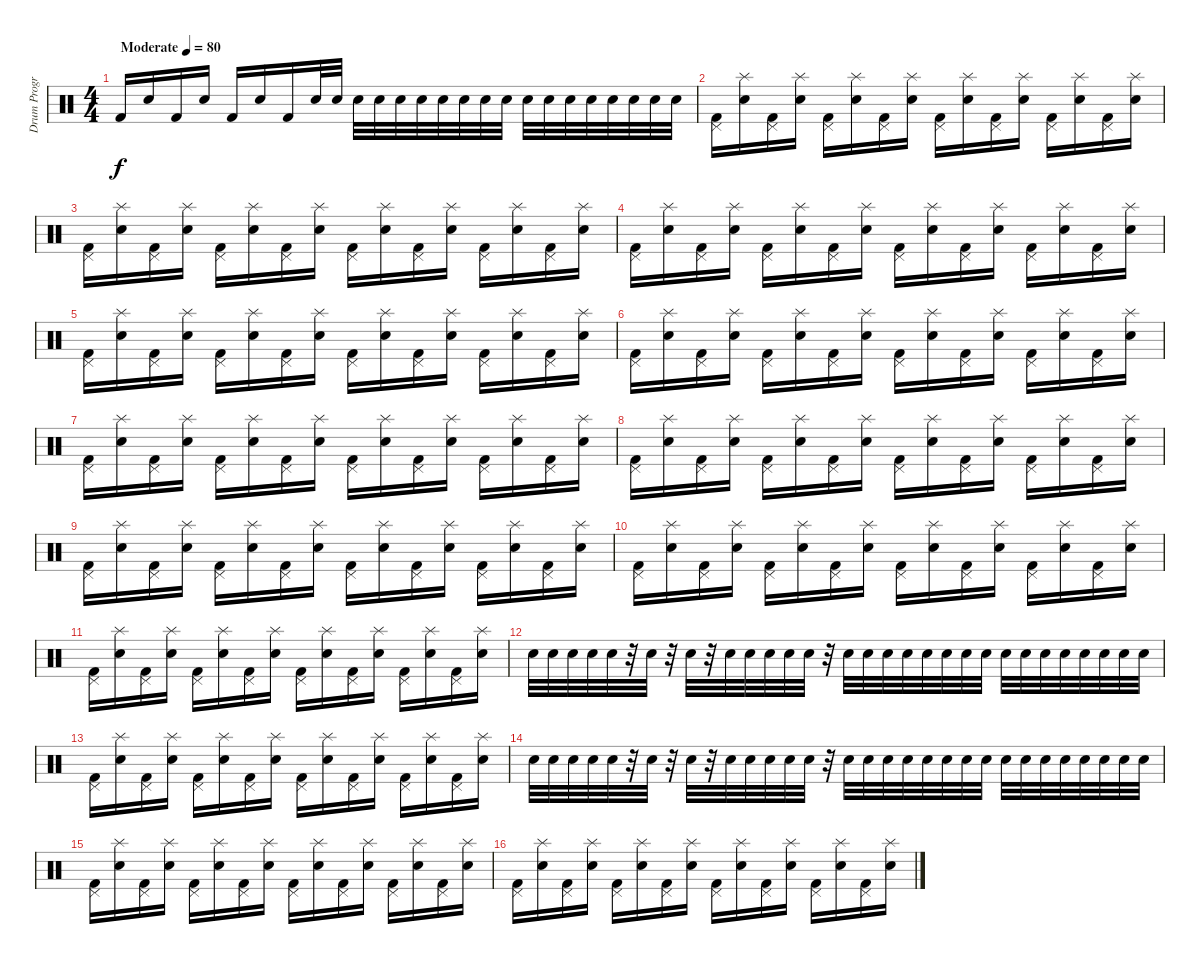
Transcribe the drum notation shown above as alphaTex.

\track ("Drum Programming" "Drum Progr") {instrument percussion}
\staff {score}
\articulation defaults
\ts (4 4)
\tempo (80 "Moderate")
\clef neutral
\ks c "Kick (hit) 2".16{dy f} "Electric Snare (hit)".16 "Kick (hit) 2".16 "Electric Snare (hit)".16 "Kick (hit) 2".16 "Electric Snare (hit)".16 "Kick (hit) 2".16 "Electric Snare (hit)".32 "Electric Snare (hit)".32 "Electric Snare (hit)".32 "Electric Snare (hit)".32 "Electric Snare (hit)".32 "Electric Snare (hit)".32 "Electric Snare (hit)".32 "Electric Snare (hit)".32 "Electric Snare (hit)".32 "Electric Snare (hit)".32 "Electric Snare (hit)".32 "Electric Snare (hit)".32 "Electric Snare (hit)".32 "Electric Snare (hit)".32 "Electric Snare (hit)".32 "Electric Snare (hit)".32 "Electric Snare (hit)".32 "Electric Snare (hit)".32
|
("Pedal Hi-Hat (hit)" "Kick (hit) 2").16 ("Electric Snare (hit)" "Splash (hit)").16 ("Pedal Hi-Hat (hit)" "Kick (hit) 2").16 ("Electric Snare (hit)" "Splash (hit)").16 ("Pedal Hi-Hat (hit)" "Kick (hit) 2").16 ("Electric Snare (hit)" "Splash (hit)").16 ("Pedal Hi-Hat (hit)" "Kick (hit) 2").16 ("Electric Snare (hit)" "Splash (hit)").16 ("Pedal Hi-Hat (hit)" "Kick (hit) 2").16 ("Electric Snare (hit)" "Splash (hit)").16 ("Pedal Hi-Hat (hit)" "Kick (hit) 2").16 ("Electric Snare (hit)" "Splash (hit)").16 ("Pedal Hi-Hat (hit)" "Kick (hit) 2").16 ("Electric Snare (hit)" "Splash (hit)").16 ("Pedal Hi-Hat (hit)" "Kick (hit) 2").16 ("Electric Snare (hit)" "Splash (hit)").16 |
("Pedal Hi-Hat (hit)" "Kick (hit) 2").16 ("Electric Snare (hit)" "Splash (hit)").16 ("Pedal Hi-Hat (hit)" "Kick (hit) 2").16 ("Electric Snare (hit)" "Splash (hit)").16 ("Pedal Hi-Hat (hit)" "Kick (hit) 2").16 ("Electric Snare (hit)" "Splash (hit)").16 ("Pedal Hi-Hat (hit)" "Kick (hit) 2").16 ("Electric Snare (hit)" "Splash (hit)").16 ("Pedal Hi-Hat (hit)" "Kick (hit) 2").16 ("Electric Snare (hit)" "Splash (hit)").16 ("Pedal Hi-Hat (hit)" "Kick (hit) 2").16 ("Electric Snare (hit)" "Splash (hit)").16 ("Pedal Hi-Hat (hit)" "Kick (hit) 2").16 ("Electric Snare (hit)" "Splash (hit)").16 ("Pedal Hi-Hat (hit)" "Kick (hit) 2").16 ("Electric Snare (hit)" "Splash (hit)").16 |
("Pedal Hi-Hat (hit)" "Kick (hit) 2").16 ("Electric Snare (hit)" "Splash (hit)").16 ("Pedal Hi-Hat (hit)" "Kick (hit) 2").16 ("Electric Snare (hit)" "Splash (hit)").16 ("Pedal Hi-Hat (hit)" "Kick (hit) 2").16 ("Electric Snare (hit)" "Splash (hit)").16 ("Pedal Hi-Hat (hit)" "Kick (hit) 2").16 ("Electric Snare (hit)" "Splash (hit)").16 ("Pedal Hi-Hat (hit)" "Kick (hit) 2").16 ("Electric Snare (hit)" "Splash (hit)").16 ("Pedal Hi-Hat (hit)" "Kick (hit) 2").16 ("Electric Snare (hit)" "Splash (hit)").16 ("Pedal Hi-Hat (hit)" "Kick (hit) 2").16 ("Electric Snare (hit)" "Splash (hit)").16 ("Pedal Hi-Hat (hit)" "Kick (hit) 2").16 ("Electric Snare (hit)" "Splash (hit)").16 |
("Pedal Hi-Hat (hit)" "Kick (hit) 2").16 ("Electric Snare (hit)" "Splash (hit)").16 ("Pedal Hi-Hat (hit)" "Kick (hit) 2").16 ("Electric Snare (hit)" "Splash (hit)").16 ("Pedal Hi-Hat (hit)" "Kick (hit) 2").16 ("Electric Snare (hit)" "Splash (hit)").16 ("Pedal Hi-Hat (hit)" "Kick (hit) 2").16 ("Electric Snare (hit)" "Splash (hit)").16 ("Pedal Hi-Hat (hit)" "Kick (hit) 2").16 ("Electric Snare (hit)" "Splash (hit)").16 ("Pedal Hi-Hat (hit)" "Kick (hit) 2").16 ("Electric Snare (hit)" "Splash (hit)").16 ("Pedal Hi-Hat (hit)" "Kick (hit) 2").16 ("Electric Snare (hit)" "Splash (hit)").16 ("Pedal Hi-Hat (hit)" "Kick (hit) 2").16 ("Electric Snare (hit)" "Splash (hit)").16 |
("Pedal Hi-Hat (hit)" "Kick (hit) 2").16 ("Electric Snare (hit)" "Splash (hit)").16 ("Pedal Hi-Hat (hit)" "Kick (hit) 2").16 ("Electric Snare (hit)" "Splash (hit)").16 ("Pedal Hi-Hat (hit)" "Kick (hit) 2").16 ("Electric Snare (hit)" "Splash (hit)").16 ("Pedal Hi-Hat (hit)" "Kick (hit) 2").16 ("Electric Snare (hit)" "Splash (hit)").16 ("Pedal Hi-Hat (hit)" "Kick (hit) 2").16 ("Electric Snare (hit)" "Splash (hit)").16 ("Pedal Hi-Hat (hit)" "Kick (hit) 2").16 ("Electric Snare (hit)" "Splash (hit)").16 ("Pedal Hi-Hat (hit)" "Kick (hit) 2").16 ("Electric Snare (hit)" "Splash (hit)").16 ("Pedal Hi-Hat (hit)" "Kick (hit) 2").16 ("Electric Snare (hit)" "Splash (hit)").16 |
("Pedal Hi-Hat (hit)" "Kick (hit) 2").16 ("Electric Snare (hit)" "Splash (hit)").16 ("Pedal Hi-Hat (hit)" "Kick (hit) 2").16 ("Electric Snare (hit)" "Splash (hit)").16 ("Pedal Hi-Hat (hit)" "Kick (hit) 2").16 ("Electric Snare (hit)" "Splash (hit)").16 ("Pedal Hi-Hat (hit)" "Kick (hit) 2").16 ("Electric Snare (hit)" "Splash (hit)").16 ("Pedal Hi-Hat (hit)" "Kick (hit) 2").16 ("Electric Snare (hit)" "Splash (hit)").16 ("Pedal Hi-Hat (hit)" "Kick (hit) 2").16 ("Electric Snare (hit)" "Splash (hit)").16 ("Pedal Hi-Hat (hit)" "Kick (hit) 2").16 ("Electric Snare (hit)" "Splash (hit)").16 ("Pedal Hi-Hat (hit)" "Kick (hit) 2").16 ("Electric Snare (hit)" "Splash (hit)").16 |
("Pedal Hi-Hat (hit)" "Kick (hit) 2").16 ("Electric Snare (hit)" "Splash (hit)").16 ("Pedal Hi-Hat (hit)" "Kick (hit) 2").16 ("Electric Snare (hit)" "Splash (hit)").16 ("Pedal Hi-Hat (hit)" "Kick (hit) 2").16 ("Electric Snare (hit)" "Splash (hit)").16 ("Pedal Hi-Hat (hit)" "Kick (hit) 2").16 ("Electric Snare (hit)" "Splash (hit)").16 ("Pedal Hi-Hat (hit)" "Kick (hit) 2").16 ("Electric Snare (hit)" "Splash (hit)").16 ("Pedal Hi-Hat (hit)" "Kick (hit) 2").16 ("Electric Snare (hit)" "Splash (hit)").16 ("Pedal Hi-Hat (hit)" "Kick (hit) 2").16 ("Electric Snare (hit)" "Splash (hit)").16 ("Pedal Hi-Hat (hit)" "Kick (hit) 2").16 ("Electric Snare (hit)" "Splash (hit)").16 |
("Pedal Hi-Hat (hit)" "Kick (hit) 2").16 ("Electric Snare (hit)" "Splash (hit)").16 ("Pedal Hi-Hat (hit)" "Kick (hit) 2").16 ("Electric Snare (hit)" "Splash (hit)").16 ("Pedal Hi-Hat (hit)" "Kick (hit) 2").16 ("Electric Snare (hit)" "Splash (hit)").16 ("Pedal Hi-Hat (hit)" "Kick (hit) 2").16 ("Electric Snare (hit)" "Splash (hit)").16 ("Pedal Hi-Hat (hit)" "Kick (hit) 2").16 ("Electric Snare (hit)" "Splash (hit)").16 ("Pedal Hi-Hat (hit)" "Kick (hit) 2").16 ("Electric Snare (hit)" "Splash (hit)").16 ("Pedal Hi-Hat (hit)" "Kick (hit) 2").16 ("Electric Snare (hit)" "Splash (hit)").16 ("Pedal Hi-Hat (hit)" "Kick (hit) 2").16 ("Electric Snare (hit)" "Splash (hit)").16 |
("Pedal Hi-Hat (hit)" "Kick (hit) 2").16 ("Electric Snare (hit)" "Splash (hit)").16 ("Pedal Hi-Hat (hit)" "Kick (hit) 2").16 ("Electric Snare (hit)" "Splash (hit)").16 ("Pedal Hi-Hat (hit)" "Kick (hit) 2").16 ("Electric Snare (hit)" "Splash (hit)").16 ("Pedal Hi-Hat (hit)" "Kick (hit) 2").16 ("Electric Snare (hit)" "Splash (hit)").16 ("Pedal Hi-Hat (hit)" "Kick (hit) 2").16 ("Electric Snare (hit)" "Splash (hit)").16 ("Pedal Hi-Hat (hit)" "Kick (hit) 2").16 ("Electric Snare (hit)" "Splash (hit)").16 ("Pedal Hi-Hat (hit)" "Kick (hit) 2").16 ("Electric Snare (hit)" "Splash (hit)").16 ("Pedal Hi-Hat (hit)" "Kick (hit) 2").16 ("Electric Snare (hit)" "Splash (hit)").16 |
("Pedal Hi-Hat (hit)" "Kick (hit) 2").16 ("Electric Snare (hit)" "Splash (hit)").16 ("Pedal Hi-Hat (hit)" "Kick (hit) 2").16 ("Electric Snare (hit)" "Splash (hit)").16 ("Pedal Hi-Hat (hit)" "Kick (hit) 2").16 ("Electric Snare (hit)" "Splash (hit)").16 ("Pedal Hi-Hat (hit)" "Kick (hit) 2").16 ("Electric Snare (hit)" "Splash (hit)").16 ("Pedal Hi-Hat (hit)" "Kick (hit) 2").16 ("Electric Snare (hit)" "Splash (hit)").16 ("Pedal Hi-Hat (hit)" "Kick (hit) 2").16 ("Electric Snare (hit)" "Splash (hit)").16 ("Pedal Hi-Hat (hit)" "Kick (hit) 2").16 ("Electric Snare (hit)" "Splash (hit)").16 ("Pedal Hi-Hat (hit)" "Kick (hit) 2").16 ("Electric Snare (hit)" "Splash (hit)").16 |
"Electric Snare (hit)".32 "Electric Snare (hit)".32 "Electric Snare (hit)".32 "Electric Snare (hit)".32 "Electric Snare (hit)".32 r.32 "Electric Snare (hit)".32 r.32 "Electric Snare (hit)".32 r.32 "Electric Snare (hit)".32 "Electric Snare (hit)".32 "Electric Snare (hit)".32 "Electric Snare (hit)".32 "Electric Snare (hit)".32 r.32 "Electric Snare (hit)".32 "Electric Snare (hit)".32 "Electric Snare (hit)".32 "Electric Snare (hit)".32 "Electric Snare (hit)".32 "Electric Snare (hit)".32 "Electric Snare (hit)".32 "Electric Snare (hit)".32 "Electric Snare (hit)".32 "Electric Snare (hit)".32 "Electric Snare (hit)".32 "Electric Snare (hit)".32 "Electric Snare (hit)".32 "Electric Snare (hit)".32 "Electric Snare (hit)".32 "Electric Snare (hit)".32 |
("Pedal Hi-Hat (hit)" "Kick (hit) 2").16 ("Electric Snare (hit)" "Splash (hit)").16 ("Pedal Hi-Hat (hit)" "Kick (hit) 2").16 ("Electric Snare (hit)" "Splash (hit)").16 ("Pedal Hi-Hat (hit)" "Kick (hit) 2").16 ("Electric Snare (hit)" "Splash (hit)").16 ("Pedal Hi-Hat (hit)" "Kick (hit) 2").16 ("Electric Snare (hit)" "Splash (hit)").16 ("Pedal Hi-Hat (hit)" "Kick (hit) 2").16 ("Electric Snare (hit)" "Splash (hit)").16 ("Pedal Hi-Hat (hit)" "Kick (hit) 2").16 ("Electric Snare (hit)" "Splash (hit)").16 ("Pedal Hi-Hat (hit)" "Kick (hit) 2").16 ("Electric Snare (hit)" "Splash (hit)").16 ("Pedal Hi-Hat (hit)" "Kick (hit) 2").16 ("Electric Snare (hit)" "Splash (hit)").16 |
"Electric Snare (hit)".32 "Electric Snare (hit)".32 "Electric Snare (hit)".32 "Electric Snare (hit)".32 "Electric Snare (hit)".32 r.32 "Electric Snare (hit)".32 r.32 "Electric Snare (hit)".32 r.32 "Electric Snare (hit)".32 "Electric Snare (hit)".32 "Electric Snare (hit)".32 "Electric Snare (hit)".32 "Electric Snare (hit)".32 r.32 "Electric Snare (hit)".32 "Electric Snare (hit)".32 "Electric Snare (hit)".32 "Electric Snare (hit)".32 "Electric Snare (hit)".32 "Electric Snare (hit)".32 "Electric Snare (hit)".32 "Electric Snare (hit)".32 "Electric Snare (hit)".32 "Electric Snare (hit)".32 "Electric Snare (hit)".32 "Electric Snare (hit)".32 "Electric Snare (hit)".32 "Electric Snare (hit)".32 "Electric Snare (hit)".32 "Electric Snare (hit)".32 |
("Pedal Hi-Hat (hit)" "Kick (hit) 2").16 ("Electric Snare (hit)" "Splash (hit)").16 ("Pedal Hi-Hat (hit)" "Kick (hit) 2").16 ("Electric Snare (hit)" "Splash (hit)").16 ("Pedal Hi-Hat (hit)" "Kick (hit) 2").16 ("Electric Snare (hit)" "Splash (hit)").16 ("Pedal Hi-Hat (hit)" "Kick (hit) 2").16 ("Electric Snare (hit)" "Splash (hit)").16 ("Pedal Hi-Hat (hit)" "Kick (hit) 2").16 ("Electric Snare (hit)" "Splash (hit)").16 ("Pedal Hi-Hat (hit)" "Kick (hit) 2").16 ("Electric Snare (hit)" "Splash (hit)").16 ("Pedal Hi-Hat (hit)" "Kick (hit) 2").16 ("Electric Snare (hit)" "Splash (hit)").16 ("Pedal Hi-Hat (hit)" "Kick (hit) 2").16 ("Electric Snare (hit)" "Splash (hit)").16 |
("Pedal Hi-Hat (hit)" "Kick (hit) 2").16 ("Electric Snare (hit)" "Splash (hit)").16 ("Pedal Hi-Hat (hit)" "Kick (hit) 2").16 ("Electric Snare (hit)" "Splash (hit)").16 ("Pedal Hi-Hat (hit)" "Kick (hit) 2").16 ("Electric Snare (hit)" "Splash (hit)").16 ("Pedal Hi-Hat (hit)" "Kick (hit) 2").16 ("Electric Snare (hit)" "Splash (hit)").16 ("Pedal Hi-Hat (hit)" "Kick (hit) 2").16 ("Electric Snare (hit)" "Splash (hit)").16 ("Pedal Hi-Hat (hit)" "Kick (hit) 2").16 ("Electric Snare (hit)" "Splash (hit)").16 ("Pedal Hi-Hat (hit)" "Kick (hit) 2").16 ("Electric Snare (hit)" "Splash (hit)").16 ("Pedal Hi-Hat (hit)" "Kick (hit) 2").16 ("Electric Snare (hit)" "Splash (hit)").16
